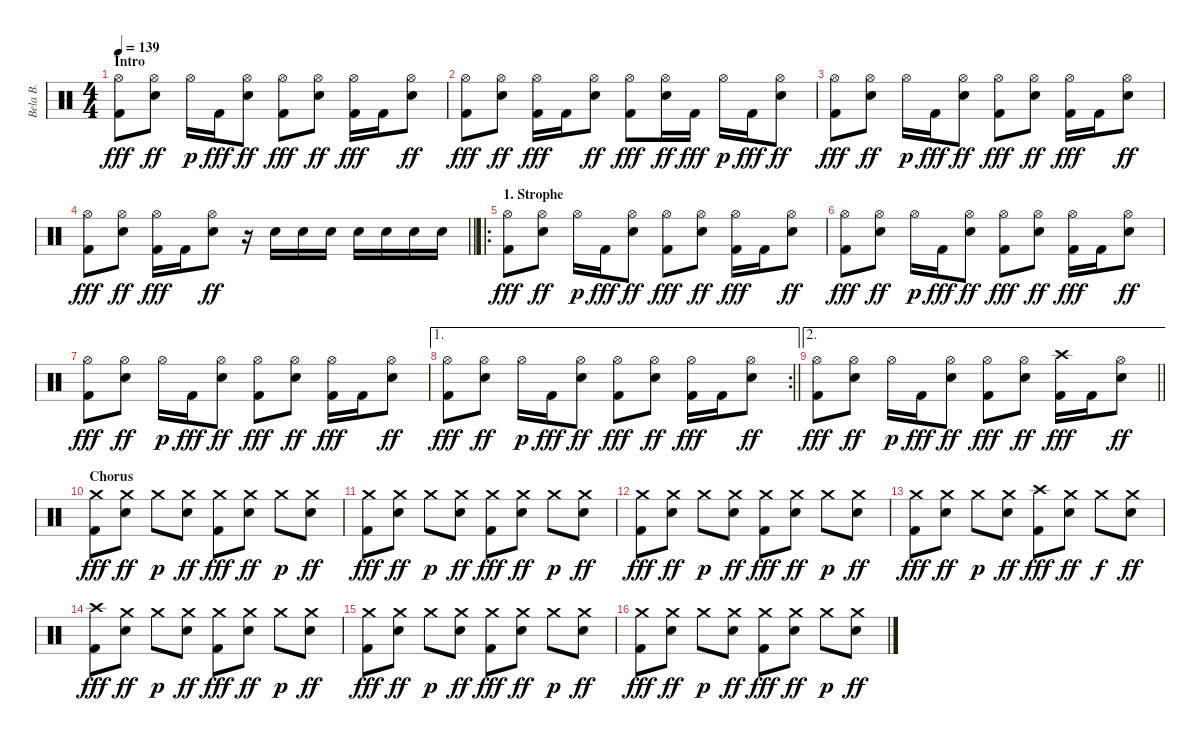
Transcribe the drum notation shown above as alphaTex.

\track ("Bela B." "Bela B.") {instrument percussion}
\staff {score}
\articulation defaults
\ts (4 4)
\section ("" "Intro")
\tempo 139
\clef neutral
\ks c
("Hi-Hat (open)" "Kick (hit) 2").8{dy fff} ("Hi-Hat (open)" "Electric Snare (hit)").8{dy ff} "Hi-Hat (open)".16{dy p} "Kick (hit) 2".16{dy fff} ("Hi-Hat (open)" "Electric Snare (hit)").8{dy ff} ("Hi-Hat (open)" "Kick (hit) 2").8{dy fff} ("Hi-Hat (open)" "Electric Snare (hit)").8{dy ff} ("Hi-Hat (open)" "Kick (hit) 2").16{dy fff} "Kick (hit) 2".16 ("Hi-Hat (open)" "Electric Snare (hit)").8{dy ff} |
("Hi-Hat (open)" "Kick (hit) 2").8{dy fff} ("Hi-Hat (open)" "Electric Snare (hit)").8{dy ff} ("Hi-Hat (open)" "Kick (hit) 2").16{dy fff} "Kick (hit) 2".16 ("Hi-Hat (open)" "Electric Snare (hit)").8{dy ff} ("Hi-Hat (open)" "Kick (hit) 2").8{dy fff} ("Hi-Hat (open)" "Electric Snare (hit)").16{dy ff} "Kick (hit) 2".16{dy fff} "Hi-Hat (open)".16{dy p} "Kick (hit) 2".16{dy fff} ("Hi-Hat (open)" "Electric Snare (hit)").8{dy ff} |
("Hi-Hat (open)" "Kick (hit) 2").8{dy fff} ("Hi-Hat (open)" "Electric Snare (hit)").8{dy ff} "Hi-Hat (open)".16{dy p} "Kick (hit) 2".16{dy fff} ("Hi-Hat (open)" "Electric Snare (hit)").8{dy ff} ("Hi-Hat (open)" "Kick (hit) 2").8{dy fff} ("Hi-Hat (open)" "Electric Snare (hit)").8{dy ff} ("Hi-Hat (open)" "Kick (hit) 2").16{dy fff} "Kick (hit) 2".16 ("Hi-Hat (open)" "Electric Snare (hit)").8{dy ff} |
\barLineRight lightlight
("Hi-Hat (open)" "Kick (hit) 2").8{dy fff} ("Hi-Hat (open)" "Electric Snare (hit)").8{dy ff} ("Hi-Hat (open)" "Kick (hit) 2").16{dy fff} "Kick (hit) 2".16 ("Hi-Hat (open)" "Electric Snare (hit)").8{dy ff} r.16 "Electric Snare (hit)".16 "Electric Snare (hit)".16 "Electric Snare (hit)".16 "Electric Snare (hit)".16 "Electric Snare (hit)".16 "Electric Snare (hit)".16 "Electric Snare (hit)".16 |
\ro
\section ("" "1. Strophe")
("Hi-Hat (open)" "Kick (hit) 2").8{dy fff} ("Hi-Hat (open)" "Electric Snare (hit)").8{dy ff} "Hi-Hat (open)".16{dy p} "Kick (hit) 2".16{dy fff} ("Hi-Hat (open)" "Electric Snare (hit)").8{dy ff} ("Hi-Hat (open)" "Kick (hit) 2").8{dy fff} ("Hi-Hat (open)" "Electric Snare (hit)").8{dy ff} ("Hi-Hat (open)" "Kick (hit) 2").16{dy fff} "Kick (hit) 2".16 ("Hi-Hat (open)" "Electric Snare (hit)").8{dy ff} |
("Hi-Hat (open)" "Kick (hit) 2").8{dy fff} ("Hi-Hat (open)" "Electric Snare (hit)").8{dy ff} "Hi-Hat (open)".16{dy p} "Kick (hit) 2".16{dy fff} ("Hi-Hat (open)" "Electric Snare (hit)").8{dy ff} ("Hi-Hat (open)" "Kick (hit) 2").8{dy fff} ("Hi-Hat (open)" "Electric Snare (hit)").8{dy ff} ("Hi-Hat (open)" "Kick (hit) 2").16{dy fff} "Kick (hit) 2".16 ("Hi-Hat (open)" "Electric Snare (hit)").8{dy ff} |
("Hi-Hat (open)" "Kick (hit) 2").8{dy fff} ("Hi-Hat (open)" "Electric Snare (hit)").8{dy ff} "Hi-Hat (open)".16{dy p} "Kick (hit) 2".16{dy fff} ("Hi-Hat (open)" "Electric Snare (hit)").8{dy ff} ("Hi-Hat (open)" "Kick (hit) 2").8{dy fff} ("Hi-Hat (open)" "Electric Snare (hit)").8{dy ff} ("Hi-Hat (open)" "Kick (hit) 2").16{dy fff} "Kick (hit) 2".16 ("Hi-Hat (open)" "Electric Snare (hit)").8{dy ff} |
\ae 1
\rc 2
\barLineRight lightlight
("Hi-Hat (open)" "Kick (hit) 2").8{dy fff} ("Hi-Hat (open)" "Electric Snare (hit)").8{dy ff} "Hi-Hat (open)".16{dy p} "Kick (hit) 2".16{dy fff} ("Hi-Hat (open)" "Electric Snare (hit)").8{dy ff} ("Hi-Hat (open)" "Kick (hit) 2").8{dy fff} ("Hi-Hat (open)" "Electric Snare (hit)").8{dy ff} ("Hi-Hat (open)" "Kick (hit) 2").16{dy fff} "Kick (hit) 2".16 ("Hi-Hat (open)" "Electric Snare (hit)").8{dy ff} |
\ae 2
\barLineRight lightlight
("Hi-Hat (open)" "Kick (hit) 2").8{dy fff} ("Hi-Hat (open)" "Electric Snare (hit)").8{dy ff} "Hi-Hat (open)".16{dy p} "Kick (hit) 2".16{dy fff} ("Hi-Hat (open)" "Electric Snare (hit)").8{dy ff} ("Hi-Hat (open)" "Kick (hit) 2").8{dy fff} ("Hi-Hat (open)" "Electric Snare (hit)").8{dy ff} ("Crash high (hit)" "Kick (hit) 2").16{dy fff} "Kick (hit) 2".16 ("Hi-Hat (open)" "Electric Snare (hit)").8{dy ff} |
\section ("" "Chorus")
("Crash medium (hit)" "Kick (hit) 2").8{dy fff} ("Crash medium (hit)" "Electric Snare (hit)").8{dy ff} "Crash medium (hit)".8{dy p} ("Crash medium (hit)" "Electric Snare (hit)").8{dy ff} ("Crash medium (hit)" "Kick (hit) 2").8{dy fff} ("Crash medium (hit)" "Electric Snare (hit)").8{dy ff} "Crash medium (hit)".8{dy p} ("Crash medium (hit)" "Electric Snare (hit)").8{dy ff} |
("Crash medium (hit)" "Kick (hit) 2").8{dy fff} ("Crash medium (hit)" "Electric Snare (hit)").8{dy ff} "Crash medium (hit)".8{dy p} ("Crash medium (hit)" "Electric Snare (hit)").8{dy ff} ("Crash medium (hit)" "Kick (hit) 2").8{dy fff} ("Crash medium (hit)" "Electric Snare (hit)").8{dy ff} "Crash medium (hit)".8{dy p} ("Crash medium (hit)" "Electric Snare (hit)").8{dy ff} |
("Crash medium (hit)" "Kick (hit) 2").8{dy fff} ("Crash medium (hit)" "Electric Snare (hit)").8{dy ff} "Crash medium (hit)".8{dy p} ("Crash medium (hit)" "Electric Snare (hit)").8{dy ff} ("Crash medium (hit)" "Kick (hit) 2").8{dy fff} ("Crash medium (hit)" "Electric Snare (hit)").8{dy ff} "Crash medium (hit)".8{dy p} ("Crash medium (hit)" "Electric Snare (hit)").8{dy ff} |
("Crash medium (hit)" "Kick (hit) 2").8{dy fff} ("Crash medium (hit)" "Electric Snare (hit)").8{dy ff} "Crash medium (hit)".8{dy p} ("Crash medium (hit)" "Electric Snare (hit)").8{dy ff} ("Crash high (hit)" "Kick (hit) 2").8{dy fff} ("Crash medium (hit)" "Electric Snare (hit)").8{dy ff} "Crash medium (hit)".8{dy f} ("Crash medium (hit)" "Electric Snare (hit)").8{dy ff} |
("Crash high (hit)" "Kick (hit) 2").8{dy fff} ("Crash medium (hit)" "Electric Snare (hit)").8{dy ff} "Crash medium (hit)".8{dy p} ("Crash medium (hit)" "Electric Snare (hit)").8{dy ff} ("Crash medium (hit)" "Kick (hit) 2").8{dy fff} ("Crash medium (hit)" "Electric Snare (hit)").8{dy ff} "Crash medium (hit)".8{dy p} ("Crash medium (hit)" "Electric Snare (hit)").8{dy ff} |
("Crash medium (hit)" "Kick (hit) 2").8{dy fff} ("Crash medium (hit)" "Electric Snare (hit)").8{dy ff} "Crash medium (hit)".8{dy p} ("Crash medium (hit)" "Electric Snare (hit)").8{dy ff} ("Crash medium (hit)" "Kick (hit) 2").8{dy fff} ("Crash medium (hit)" "Electric Snare (hit)").8{dy ff} "Crash medium (hit)".8{dy p} ("Crash medium (hit)" "Electric Snare (hit)").8{dy ff} |
("Crash medium (hit)" "Kick (hit) 2").8{dy fff} ("Crash medium (hit)" "Electric Snare (hit)").8{dy ff} "Crash medium (hit)".8{dy p} ("Crash medium (hit)" "Electric Snare (hit)").8{dy ff} ("Crash medium (hit)" "Kick (hit) 2").8{dy fff} ("Crash medium (hit)" "Electric Snare (hit)").8{dy ff} "Crash medium (hit)".8{dy p} ("Crash medium (hit)" "Electric Snare (hit)").8{dy ff}
